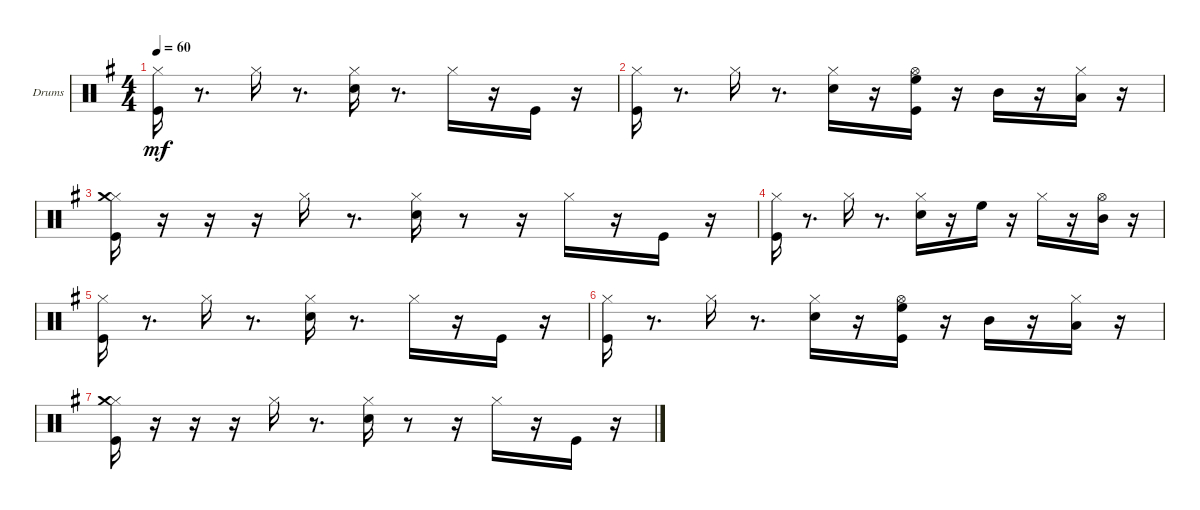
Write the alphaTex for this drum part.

\bracketExtendMode groupsimilarinstruments
\firstSystemTrackNameOrientation horizontal
\otherSystemsTrackNameOrientation horizontal
\track ("Drumkit" "Drums") {instrument percussion}
\staff {score}
\articulation defaults
\ts (4 4)
\tempo 60
\clef neutral
\scale
0.333333
\ks g
("Kick (hit)" "Hi-Hat (closed)").16{dy mf} r.8{d} "Hi-Hat (closed)".16 r.8{d} ("Hi-Hat (closed)" "Snare (hit) 2").16 r.8{d} "Hi-Hat (closed)".16 r.16 "Kick (hit)".16 r.16 |
\scale
0.333333 ("Kick (hit)" "Hi-Hat (closed)").16 r.8{d} "Hi-Hat (closed)".16 r.8{d} ("Hi-Hat (closed)" "Snare (hit) 2").16 r.16 ("Kick (hit)" "Hi-Hat (open)" "High Floor Tom (hit)").16 r.16 "Mid Tom (hit)".16 r.16 ("Hi-Hat (closed)" "Low Tom (hit)").16 r.16 |
\scale
0.333333 ("Kick (hit)" "Hi-Hat (closed)" "Crash medium (hit)").16 r.16 r.16 r.16 "Hi-Hat (closed)".16 r.8{d} ("Hi-Hat (closed)" "Snare (hit) 2").16 r.8 r.16 "Hi-Hat (closed)".16 r.16 "Kick (hit)".16 r.16 |
\scale
0.333333 ("Kick (hit)" "Hi-Hat (closed)").16 r.8{d} "Hi-Hat (closed)".16 r.8{d} ("Hi-Hat (closed)" "Snare (hit) 2").16 r.16 "High Floor Tom (hit)".16 r.16 "Hi-Hat (closed)".16 r.16 ("Hi-Hat (open)" "Mid Tom (hit)").16 r.16 |
("Kick (hit)" "Hi-Hat (closed)").16 r.8{d} "Hi-Hat (closed)".16 r.8{d} ("Hi-Hat (closed)" "Snare (hit) 2").16 r.8{d} "Hi-Hat (closed)".16 r.16 "Kick (hit)".16 r.16 |
("Kick (hit)" "Hi-Hat (closed)").16 r.8{d} "Hi-Hat (closed)".16 r.8{d} ("Hi-Hat (closed)" "Snare (hit) 2").16 r.16 ("Kick (hit)" "Hi-Hat (open)" "High Floor Tom (hit)").16 r.16 "Mid Tom (hit)".16 r.16 ("Hi-Hat (closed)" "Low Tom (hit)").16 r.16 |
("Kick (hit)" "Hi-Hat (closed)" "Crash medium (hit)").16 r.16 r.16 r.16 "Hi-Hat (closed)".16 r.8{d} ("Hi-Hat (closed)" "Snare (hit) 2").16 r.8 r.16 "Hi-Hat (closed)".16 r.16 "Kick (hit)".16 r.16
